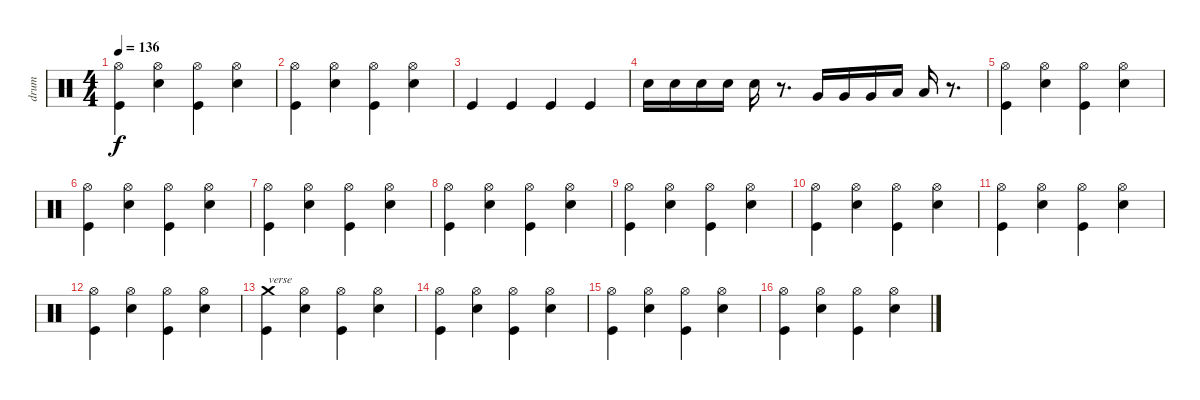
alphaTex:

\track ("drum" "drum") {instrument percussion}
\staff {score}
\articulation defaults
\ts (4 4)
\tempo 136
\clef neutral
\ks c
("Kick (hit)" "Hi-Hat (open)").4{dy f} ("Electric Snare (hit)" "Hi-Hat (open)").4 ("Kick (hit)" "Hi-Hat (open)").4 ("Electric Snare (hit)" "Hi-Hat (open)").4 |
("Kick (hit)" "Hi-Hat (open)").4 ("Electric Snare (hit)" "Hi-Hat (open)").4 ("Kick (hit)" "Hi-Hat (open)").4 ("Electric Snare (hit)" "Hi-Hat (open)").4 |
"Kick (hit)".4 "Kick (hit)".4 "Kick (hit)".4 "Kick (hit)".4 |
"Electric Snare (hit)".16 "Electric Snare (hit)".16 "Electric Snare (hit)".16 "Electric Snare (hit)".16 "Electric Snare (hit)".16 r.8{d} "Very Low Tom (hit)".16 "Very Low Tom (hit)".16 "Very Low Tom (hit)".16 "Low Floor Tom (hit)".16 "Low Floor Tom (hit)".16 r.8{d} |
("Kick (hit)" "Hi-Hat (open)").4 ("Electric Snare (hit)" "Hi-Hat (open)").4 ("Kick (hit)" "Hi-Hat (open)").4 ("Electric Snare (hit)" "Hi-Hat (open)").4 |
("Kick (hit)" "Hi-Hat (open)").4 ("Electric Snare (hit)" "Hi-Hat (open)").4 ("Kick (hit)" "Hi-Hat (open)").4 ("Electric Snare (hit)" "Hi-Hat (open)").4 |
("Kick (hit)" "Hi-Hat (open)").4 ("Electric Snare (hit)" "Hi-Hat (open)").4 ("Kick (hit)" "Hi-Hat (open)").4 ("Electric Snare (hit)" "Hi-Hat (open)").4 |
("Kick (hit)" "Hi-Hat (open)").4 ("Electric Snare (hit)" "Hi-Hat (open)").4 ("Kick (hit)" "Hi-Hat (open)").4 ("Electric Snare (hit)" "Hi-Hat (open)").4 |
("Kick (hit)" "Hi-Hat (open)").4 ("Electric Snare (hit)" "Hi-Hat (open)").4 ("Kick (hit)" "Hi-Hat (open)").4 ("Electric Snare (hit)" "Hi-Hat (open)").4 |
("Kick (hit)" "Hi-Hat (open)").4 ("Electric Snare (hit)" "Hi-Hat (open)").4 ("Kick (hit)" "Hi-Hat (open)").4 ("Electric Snare (hit)" "Hi-Hat (open)").4 |
("Kick (hit)" "Hi-Hat (open)").4 ("Electric Snare (hit)" "Hi-Hat (open)").4 ("Kick (hit)" "Hi-Hat (open)").4 ("Electric Snare (hit)" "Hi-Hat (open)").4 |
("Kick (hit)" "Hi-Hat (open)").4 ("Electric Snare (hit)" "Hi-Hat (open)").4 ("Kick (hit)" "Hi-Hat (open)").4 ("Electric Snare (hit)" "Hi-Hat (open)").4 |
("Kick (hit)" "Crash medium (hit)").4{txt "verse"} ("Electric Snare (hit)" "Hi-Hat (open)").4 ("Kick (hit)" "Hi-Hat (open)").4 ("Electric Snare (hit)" "Hi-Hat (open)").4 |
("Kick (hit)" "Hi-Hat (open)").4 ("Electric Snare (hit)" "Hi-Hat (open)").4 ("Kick (hit)" "Hi-Hat (open)").4 ("Electric Snare (hit)" "Hi-Hat (open)").4 |
("Kick (hit)" "Hi-Hat (open)").4 ("Electric Snare (hit)" "Hi-Hat (open)").4 ("Kick (hit)" "Hi-Hat (open)").4 ("Electric Snare (hit)" "Hi-Hat (open)").4 |
("Kick (hit)" "Hi-Hat (open)").4 ("Electric Snare (hit)" "Hi-Hat (open)").4 ("Kick (hit)" "Hi-Hat (open)").4 ("Electric Snare (hit)" "Hi-Hat (open)").4
